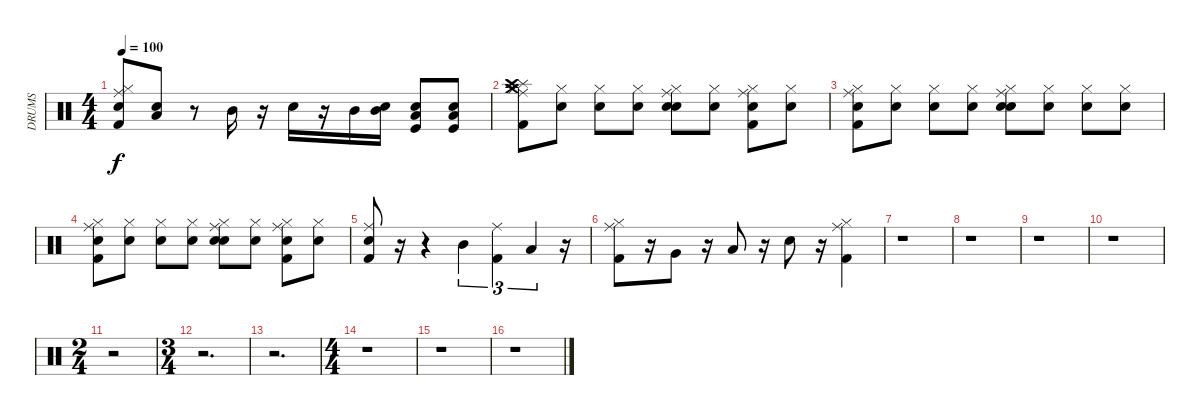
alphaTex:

\track ("DRUMS" "DRUMS") {instrument percussion}
\staff {score}
\articulation defaults
\ts (4 4)
\tempo 100
\clef neutral
\ks c
("Snare (hit)" "Ride (middle)" "Hi-Hat (closed)" "Kick (hit) 2").8{dy f} ("Snare (hit)" "Low Tom (hit)").8 r.8 "Mid Tom (hit)".16 r.16 "Snare (hit) 2".16 r.16 "Mid Tom (hit)".16 ("Snare (hit)" "Mid Tom (hit)").16 ("Snare (hit)" "Kick (hit)" "Low Tom (hit)").8 ("Snare (hit)" "Kick (hit)" "Low Tom (hit)").8 |
("Ride (middle)" "Hi-Hat (closed)" "Kick (hit) 2" "Crash medium (hit)" "Splash (hit)" "Crash high (hit)").8 ("Snare (hit)" "Hi-Hat (closed)").8 ("Snare (hit)" "Hi-Hat (closed)").8 ("Snare (hit)" "Hi-Hat (closed)").8 ("Snare (hit)" "Ride (middle)" "Hi-Hat (closed)" "Snare (hit) 2").8 ("Snare (hit)" "Hi-Hat (closed)").8 ("Snare (hit)" "Kick (hit) 2" "Ride (middle)" "Hi-Hat (closed)").8 ("Snare (hit)" "Hi-Hat (closed)").8 |
("Snare (hit)" "Kick (hit) 2" "Ride (middle)" "Hi-Hat (closed)").8 ("Snare (hit)" "Hi-Hat (closed)").8 ("Snare (hit)" "Hi-Hat (closed)").8 ("Snare (hit)" "Hi-Hat (closed)").8 ("Snare (hit)" "Snare (hit) 2" "Ride (middle)" "Hi-Hat (closed)").8 ("Snare (hit)" "Hi-Hat (closed)").8 ("Snare (hit)" "Hi-Hat (closed)").8 ("Snare (hit)" "Hi-Hat (closed)").8 |
("Snare (hit)" "Kick (hit) 2" "Ride (middle)" "Hi-Hat (closed)").8 ("Snare (hit)" "Hi-Hat (closed)").8 ("Snare (hit)" "Hi-Hat (closed)").8 ("Snare (hit)" "Hi-Hat (closed)").8 ("Snare (hit)" "Ride (middle)" "Snare (hit) 2" "Hi-Hat (closed)").8 ("Snare (hit)" "Hi-Hat (closed)").8 ("Snare (hit)" "Ride (middle)" "Kick (hit) 2" "Hi-Hat (closed)").8 ("Snare (hit)" "Hi-Hat (closed)").8 |
("Snare (hit)" "Ride (middle)" "Kick (hit) 2").8 r.16 r.4 "Mid Tom (hit)".4{tu (3 2)} ("Ride (middle)" "Kick (hit) 2").4{tu (3 2)} "Low Tom (hit)".4{tu (3 2)} r.16 |
("Ride (middle)" "Kick (hit) 2" "Hi-Hat (closed)").8 r.16 "Very Low Tom (hit)".8 r.16 "Low Floor Tom (hit)".8 r.16 "Snare (hit) 2".8 r.16 ("Ride (middle)" "Kick (hit) 2" "Hi-Hat (closed)").4 |
r.1 |
r.1 |
r.1 |
r.1 |
\ts (2 4)
r.2 |
\ts (3 4)
r.2{d} |
r.2{d} |
\ts (4 4)
r.1 |
r.1 |
r.1
